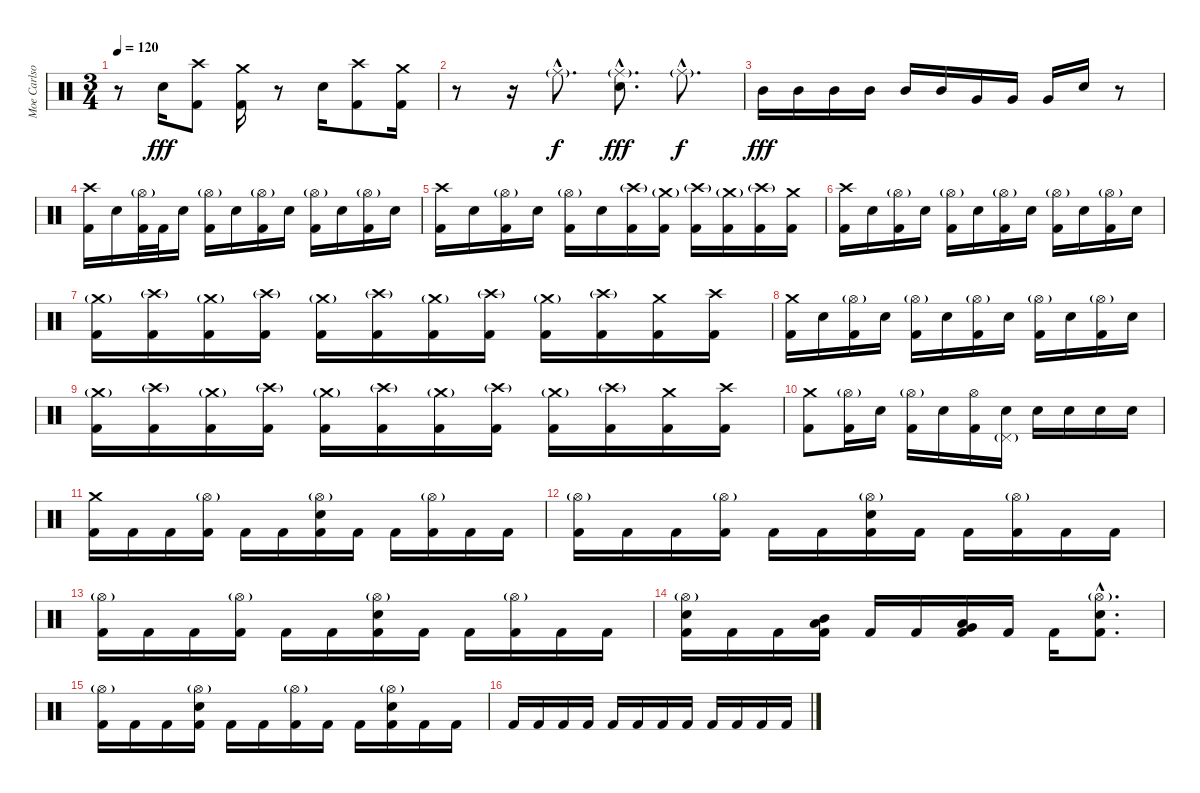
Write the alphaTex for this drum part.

\track ("Moe Carlson" "Moe Carlso") {instrument percussion}
\staff {score}
\articulation defaults
\ts (3 4)
\tempo 120
\clef neutral
\ks c
r.8{dy fff} "Electric Snare (hit)".16 ("Crash high (hit)" "Kick (hit) 2").8 ("Crash medium (hit)" "Kick (hit) 2").16 r.8 "Electric Snare (hit)".16 ("Crash high (hit)" "Kick (hit) 2").8 ("Crash medium (hit)" "Kick (hit) 2").16 |
r.8 r.16 "Ride (middle)"{g hac}.8{d dy f} ("Ride (middle)"{g hac} "Electric Snare (hit)"{hac}).8{d dy fff} "Ride (middle)"{g hac}.8{d dy f} |
"Mid Tom (hit)".16{dy fff} "Mid Tom (hit)".16 "Mid Tom (hit)".16 "Mid Tom (hit)".16 "Mid Tom (hit)".16 "Mid Tom (hit)".16 "Very Low Tom (hit)".16 "Very Low Tom (hit)".16 "Very Low Tom (hit)".16 "Electric Snare (hit)".16 r.8 |
("Crash high (hit)" "Kick (hit) 2").16 "Electric Snare (hit)".16 ("Hi-Hat (open)"{g} "Kick (hit) 2").32 "Kick (hit) 2".32 "Electric Snare (hit)".16 ("Hi-Hat (open)"{g} "Kick (hit) 2").16 "Electric Snare (hit)".16 ("Hi-Hat (open)"{g} "Kick (hit) 2").16 "Electric Snare (hit)".16 ("Hi-Hat (open)"{g} "Kick (hit) 2").16 "Electric Snare (hit)".16 ("Hi-Hat (open)"{g} "Kick (hit) 2").16 "Electric Snare (hit)".16 |
("Crash high (hit)" "Kick (hit) 2").16 "Electric Snare (hit)".16 ("Hi-Hat (open)"{g} "Kick (hit) 2").16 "Electric Snare (hit)".16 ("Hi-Hat (open)"{g} "Kick (hit) 2").16 "Electric Snare (hit)".16 ("Crash high (hit)"{g} "Kick (hit) 2").16 ("Crash medium (hit)"{g} "Kick (hit) 2").16 ("Crash high (hit)"{g} "Kick (hit) 2").16 ("Crash medium (hit)"{g} "Kick (hit) 2").16 ("Crash high (hit)"{g} "Kick (hit) 2").16 ("Crash medium (hit)" "Kick (hit) 2").16 |
("Crash high (hit)" "Kick (hit) 2").16 "Electric Snare (hit)".16 ("Hi-Hat (open)"{g} "Kick (hit) 2").16 "Electric Snare (hit)".16 ("Hi-Hat (open)"{g} "Kick (hit) 2").16 "Electric Snare (hit)".16 ("Hi-Hat (open)"{g} "Kick (hit) 2").16 "Electric Snare (hit)".16 ("Hi-Hat (open)"{g} "Kick (hit) 2").16 "Electric Snare (hit)".16 ("Hi-Hat (open)"{g} "Kick (hit) 2").16 "Electric Snare (hit)".16 |
("Crash medium (hit)"{g} "Kick (hit) 2").16 ("Crash high (hit)"{g} "Kick (hit) 2").16 ("Crash medium (hit)"{g} "Kick (hit) 2").16 ("Crash high (hit)"{g} "Kick (hit) 2").16 ("Crash medium (hit)"{g} "Kick (hit) 2").16 ("Crash high (hit)"{g} "Kick (hit) 2").16 ("Crash medium (hit)"{g} "Kick (hit) 2").16 ("Crash high (hit)"{g} "Kick (hit) 2").16 ("Crash medium (hit)"{g} "Kick (hit) 2").16 ("Crash high (hit)"{g} "Kick (hit) 2").16 ("Crash medium (hit)" "Kick (hit) 2").16 ("Crash high (hit)" "Kick (hit) 2").16 |
("Crash medium (hit)" "Kick (hit) 2").16 "Electric Snare (hit)".16 ("Hi-Hat (open)"{g} "Kick (hit) 2").16 "Electric Snare (hit)".16 ("Hi-Hat (open)"{g} "Kick (hit) 2").16 "Electric Snare (hit)".16 ("Hi-Hat (open)"{g} "Kick (hit) 2").16 "Electric Snare (hit)".16 ("Hi-Hat (open)"{g} "Kick (hit) 2").16 "Electric Snare (hit)".16 ("Hi-Hat (open)"{g} "Kick (hit) 2").16 "Electric Snare (hit)".16 |
("Crash medium (hit)"{g} "Kick (hit) 2").16 ("Crash high (hit)"{g} "Kick (hit) 2").16 ("Crash medium (hit)"{g} "Kick (hit) 2").16 ("Crash high (hit)"{g} "Kick (hit) 2").16 ("Crash medium (hit)"{g} "Kick (hit) 2").16 ("Crash high (hit)"{g} "Kick (hit) 2").16 ("Crash medium (hit)"{g} "Kick (hit) 2").16 ("Crash high (hit)"{g} "Kick (hit) 2").16 ("Crash medium (hit)"{g} "Kick (hit) 2").16 ("Crash high (hit)"{g} "Kick (hit) 2").16 ("Crash medium (hit)" "Kick (hit) 2").16 ("Crash high (hit)" "Kick (hit) 2").16 |
("Crash medium (hit)" "Kick (hit) 2").8 ("Hi-Hat (open)"{g} "Kick (hit) 2").16 "Electric Snare (hit)".16 ("Hi-Hat (open)"{g} "Kick (hit) 2").16 "Electric Snare (hit)".16 ("Hi-Hat (open)" "Kick (hit) 2").16 ("Electric Snare (hit)" "Pedal Hi-Hat (hit)"{g}).16 "Electric Snare (hit)".16 "Electric Snare (hit)".16 "Electric Snare (hit)".16 "Electric Snare (hit)".16 |
("Crash medium (hit)" "Kick (hit) 2").16 "Kick (hit) 2".16 "Kick (hit) 2".16 ("Hi-Hat (open)"{g} "Kick (hit) 2").16 "Kick (hit) 2".16 "Kick (hit) 2".16 ("Hi-Hat (open)"{g} "Electric Snare (hit)" "Kick (hit) 2").16 "Kick (hit) 2".16 "Kick (hit) 2".16 ("Hi-Hat (open)"{g} "Kick (hit) 2").16 "Kick (hit) 2".16 "Kick (hit) 2".16 |
("Hi-Hat (open)"{g} "Kick (hit) 2").16 "Kick (hit) 2".16 "Kick (hit) 2".16 ("Hi-Hat (open)"{g} "Kick (hit) 2").16 "Kick (hit) 2".16 "Kick (hit) 2".16 ("Hi-Hat (open)"{g} "Electric Snare (hit)" "Kick (hit) 2").16 "Kick (hit) 2".16 "Kick (hit) 2".16 ("Hi-Hat (open)"{g} "Kick (hit) 2").16 "Kick (hit) 2".16 "Kick (hit) 2".16 |
("Hi-Hat (open)"{g} "Kick (hit) 2").16 "Kick (hit) 2".16 "Kick (hit) 2".16 ("Hi-Hat (open)"{g} "Kick (hit) 2").16 "Kick (hit) 2".16 "Kick (hit) 2".16 ("Hi-Hat (open)"{g} "Electric Snare (hit)" "Kick (hit) 2").16 "Kick (hit) 2".16 "Kick (hit) 2".16 ("Hi-Hat (open)"{g} "Kick (hit) 2").16 "Kick (hit) 2".16 "Kick (hit) 2".16 |
("Hi-Hat (open)"{g} "Electric Snare (hit)" "Kick (hit) 2").16 "Kick (hit) 2".16 "Kick (hit) 2".16 ("Mid Tom (hit)" "Low Tom (hit)" "Kick (hit) 2").16 "Kick (hit) 2".16 "Kick (hit) 2".16 ("Low Tom (hit)" "Very Low Tom (hit)" "Kick (hit) 2").16 "Kick (hit) 2".16 "Kick (hit) 2".16 ("Hi-Hat (open)"{g hac} "Electric Snare (hit)"{hac} "Kick (hit) 2"{hac}).8{d} |
("Hi-Hat (open)"{g} "Kick (hit) 2").16 "Kick (hit) 2".16 "Kick (hit) 2".16 ("Hi-Hat (open)"{g} "Electric Snare (hit)" "Kick (hit) 2").16 "Kick (hit) 2".16 "Kick (hit) 2".16 ("Hi-Hat (open)"{g} "Kick (hit) 2").16 "Kick (hit) 2".16 "Kick (hit) 2".16 ("Hi-Hat (open)"{g} "Electric Snare (hit)" "Kick (hit) 2").16 "Kick (hit) 2".16 "Kick (hit) 2".16 |
"Kick (hit) 2".16 "Kick (hit) 2".16 "Kick (hit) 2".16 "Kick (hit) 2".16 "Kick (hit) 2".16 "Kick (hit) 2".16 "Kick (hit) 2".16 "Kick (hit) 2".16 "Kick (hit) 2".16 "Kick (hit) 2".16 "Kick (hit) 2".16 "Kick (hit) 2".16
